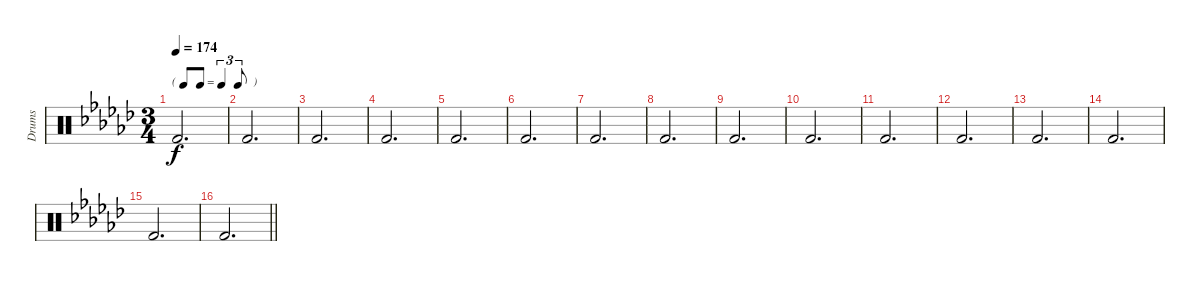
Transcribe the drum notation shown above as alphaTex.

\track ("Drums" "Drums") {instrument percussion}
\staff {score}
\articulation defaults
\ts (3 4)
\tf triplet8th
\tempo 174
\clef neutral
\ks ebminor "Kick (hit) 2".2{d dy f}
|
"Kick (hit) 2".2{d} |
"Kick (hit) 2".2{d} |
"Kick (hit) 2".2{d} |
"Kick (hit) 2".2{d} |
"Kick (hit) 2".2{d} |
"Kick (hit) 2".2{d} |
"Kick (hit) 2".2{d} |
"Kick (hit) 2".2{d} |
"Kick (hit) 2".2{d} |
"Kick (hit) 2".2{d} |
"Kick (hit) 2".2{d} |
"Kick (hit) 2".2{d} |
"Kick (hit) 2".2{d} |
"Kick (hit) 2".2{d} |
\barLineRight lightlight "Kick (hit) 2".2{d}
